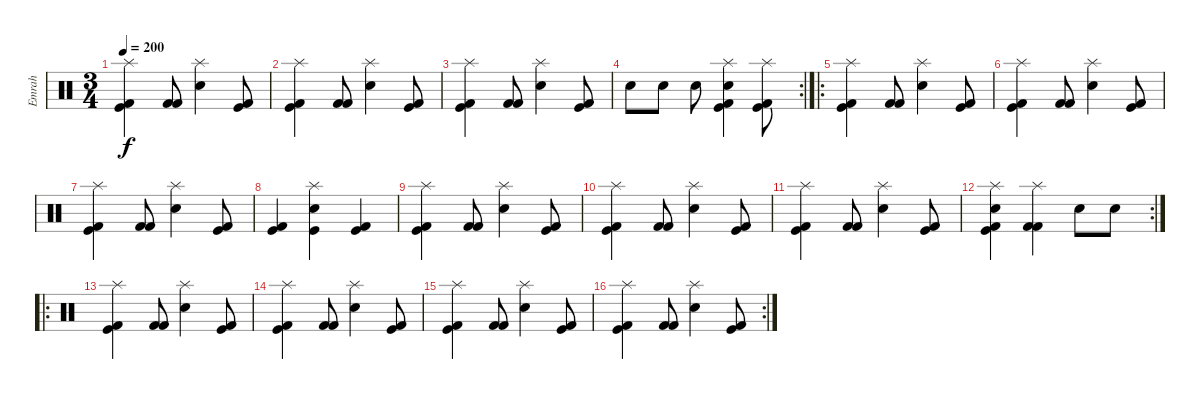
\track ("Emrah" "Emrah") {instrument percussion}
\staff {score}
\articulation defaults
\ts (3 4)
\tempo 200
\clef neutral
\ks c
("Splash (hit)" "Kick (hit)" "Kick (hit) 2").4{dy f} ("Kick (hit) 2" "Kick (hit) 2").8 ("Splash (hit)" "Snare (hit) 2").4 ("Kick (hit)" "Kick (hit) 2").8 |
("Splash (hit)" "Kick (hit)" "Kick (hit) 2").4 ("Kick (hit) 2" "Kick (hit) 2").8 ("Splash (hit)" "Snare (hit) 2").4 ("Kick (hit)" "Kick (hit) 2").8 |
("Splash (hit)" "Kick (hit)" "Kick (hit) 2").4 ("Kick (hit) 2" "Kick (hit) 2").8 ("Splash (hit)" "Snare (hit) 2").4 ("Kick (hit)" "Kick (hit) 2").8 |
\rc 2 "Snare (hit) 2".8 "Snare (hit) 2".8 "Snare (hit) 2".8
("Splash (hit)" "Snare (hit) 2" "Kick (hit)" "Kick (hit) 2").4 ("Splash (hit)" "Kick (hit)" "Kick (hit) 2").8 |
\ro
("Splash (hit)" "Kick (hit)" "Kick (hit) 2").4 ("Kick (hit) 2" "Kick (hit) 2").8 ("Splash (hit)" "Snare (hit) 2").4 ("Kick (hit)" "Kick (hit) 2").8 |
("Splash (hit)" "Kick (hit)" "Kick (hit) 2").4 ("Kick (hit) 2" "Kick (hit) 2").8 ("Splash (hit)" "Snare (hit) 2").4 ("Kick (hit)" "Kick (hit) 2").8 |
("Splash (hit)" "Kick (hit)" "Kick (hit) 2").4 ("Kick (hit) 2" "Kick (hit) 2").8 ("Splash (hit)" "Snare (hit) 2").4 ("Kick (hit)" "Kick (hit) 2").8 |
("Kick (hit)" "Kick (hit) 2").4 ("Splash (hit)" "Snare (hit) 2" "Kick (hit)").4 ("Kick (hit)" "Kick (hit) 2").4 |
("Splash (hit)" "Kick (hit)" "Kick (hit) 2").4 ("Kick (hit) 2" "Kick (hit) 2").8 ("Splash (hit)" "Snare (hit) 2").4 ("Kick (hit)" "Kick (hit) 2").8 |
("Splash (hit)" "Kick (hit)" "Kick (hit) 2").4 ("Kick (hit) 2" "Kick (hit) 2").8 ("Splash (hit)" "Snare (hit) 2").4 ("Kick (hit)" "Kick (hit) 2").8 |
("Splash (hit)" "Kick (hit)" "Kick (hit) 2").4 ("Kick (hit) 2" "Kick (hit) 2").8 ("Splash (hit)" "Snare (hit) 2").4 ("Kick (hit)" "Kick (hit) 2").8 |
\rc 2
("Splash (hit)" "Snare (hit) 2" "Kick (hit)" "Kick (hit) 2").4 ("Splash (hit)" "Kick (hit) 2" "Kick (hit) 2").4 "Snare (hit) 2".8 "Snare (hit) 2".8 |
\ro
("Splash (hit)" "Kick (hit)" "Kick (hit) 2").4 ("Kick (hit) 2" "Kick (hit) 2").8 ("Splash (hit)" "Snare (hit) 2").4 ("Kick (hit)" "Kick (hit) 2").8 |
("Splash (hit)" "Kick (hit)" "Kick (hit) 2").4 ("Kick (hit) 2" "Kick (hit) 2").8 ("Splash (hit)" "Snare (hit) 2").4 ("Kick (hit)" "Kick (hit) 2").8 |
("Splash (hit)" "Kick (hit)" "Kick (hit) 2").4 ("Kick (hit) 2" "Kick (hit) 2").8 ("Splash (hit)" "Snare (hit) 2").4 ("Kick (hit)" "Kick (hit) 2").8 |
\rc 2
("Splash (hit)" "Kick (hit)" "Kick (hit) 2").4 ("Kick (hit) 2" "Kick (hit) 2").8 ("Splash (hit)" "Snare (hit) 2").4 ("Kick (hit)" "Kick (hit) 2").8
